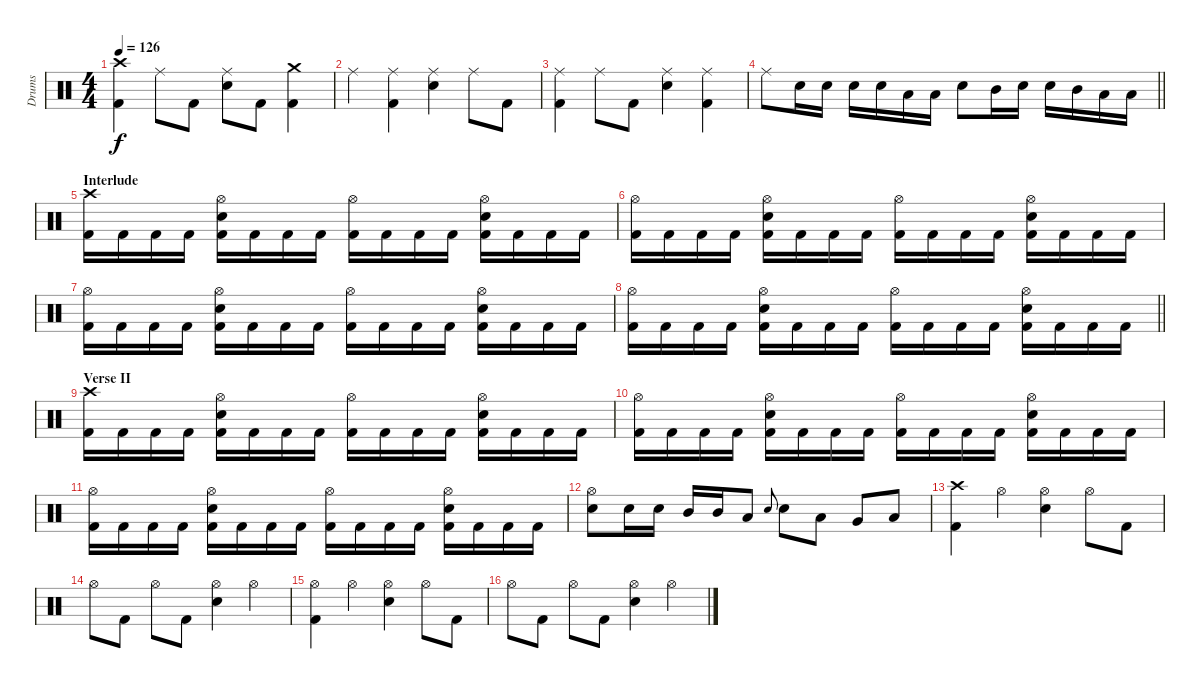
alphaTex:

\track ("Drums" "Drums") {instrument percussion}
\staff {score}
\articulation defaults
\ts (4 4)
\tempo 126
\clef neutral
\ks c
("Crash high (hit)" "Kick (hit) 2").4{dy f} "Ride (middle)".8 "Kick (hit) 2".8 ("Ride (middle)" "Snare (hit) 2").8 "Kick (hit) 2".8 ("Crash medium (hit)" "Kick (hit) 2").4 |
"Ride (middle)".4 ("Ride (middle)" "Kick (hit) 2").4 ("Ride (middle)" "Snare (hit) 2").4 "Ride (middle)".8 "Kick (hit) 2".8 |
("Ride (middle)" "Kick (hit) 2").4 "Ride (middle)".8 "Kick (hit) 2".8 ("Ride (middle)" "Snare (hit) 2").4 ("Ride (middle)" "Kick (hit) 2").4 |
\barLineRight lightlight "Ride (middle)".8 "Snare (hit) 2".16 "Snare (hit) 2".16 "Snare (hit) 2".16 "Snare (hit) 2".16 "Low Tom (hit)".16 "Low Tom (hit)".16 "Snare (hit) 2".8 "Mid Tom (hit)".16 "Snare (hit) 2".16 "Snare (hit) 2".16 "Mid Tom (hit)".16 "Low Tom (hit)".16 "Low Tom (hit)".16
|
\section ("" "Interlude")
("Crash high (hit)" "Kick (hit) 2").16 "Kick (hit) 2".16 "Kick (hit) 2".16 "Kick (hit) 2".16 ("Hi-Hat (open)" "Snare (hit) 2" "Kick (hit) 2").16 "Kick (hit) 2".16 "Kick (hit) 2".16 "Kick (hit) 2".16 ("Hi-Hat (open)" "Kick (hit) 2").16 "Kick (hit) 2".16 "Kick (hit) 2".16 "Kick (hit) 2".16 ("Hi-Hat (open)" "Snare (hit) 2" "Kick (hit) 2").16 "Kick (hit) 2".16 "Kick (hit) 2".16 "Kick (hit) 2".16 |
("Hi-Hat (open)" "Kick (hit) 2").16 "Kick (hit) 2".16 "Kick (hit) 2".16 "Kick (hit) 2".16 ("Hi-Hat (open)" "Snare (hit) 2" "Kick (hit) 2").16 "Kick (hit) 2".16 "Kick (hit) 2".16 "Kick (hit) 2".16 ("Hi-Hat (open)" "Kick (hit) 2").16 "Kick (hit) 2".16 "Kick (hit) 2".16 "Kick (hit) 2".16 ("Hi-Hat (open)" "Snare (hit) 2" "Kick (hit) 2").16 "Kick (hit) 2".16 "Kick (hit) 2".16 "Kick (hit) 2".16 |
("Hi-Hat (open)" "Kick (hit) 2").16 "Kick (hit) 2".16 "Kick (hit) 2".16 "Kick (hit) 2".16 ("Hi-Hat (open)" "Snare (hit) 2" "Kick (hit) 2").16 "Kick (hit) 2".16 "Kick (hit) 2".16 "Kick (hit) 2".16 ("Hi-Hat (open)" "Kick (hit) 2").16 "Kick (hit) 2".16 "Kick (hit) 2".16 "Kick (hit) 2".16 ("Hi-Hat (open)" "Snare (hit) 2" "Kick (hit) 2").16 "Kick (hit) 2".16 "Kick (hit) 2".16 "Kick (hit) 2".16 |
\barLineRight lightlight
("Hi-Hat (open)" "Kick (hit) 2").16 "Kick (hit) 2".16 "Kick (hit) 2".16 "Kick (hit) 2".16 ("Hi-Hat (open)" "Snare (hit) 2" "Kick (hit) 2").16 "Kick (hit) 2".16 "Kick (hit) 2".16 "Kick (hit) 2".16 ("Hi-Hat (open)" "Kick (hit) 2").16 "Kick (hit) 2".16 "Kick (hit) 2".16 "Kick (hit) 2".16 ("Hi-Hat (open)" "Snare (hit) 2" "Kick (hit) 2").16 "Kick (hit) 2".16 "Kick (hit) 2".16 "Kick (hit) 2".16 |
\section ("" "Verse II")
("Crash high (hit)" "Kick (hit) 2").16 "Kick (hit) 2".16 "Kick (hit) 2".16 "Kick (hit) 2".16 ("Hi-Hat (open)" "Snare (hit) 2" "Kick (hit) 2").16 "Kick (hit) 2".16 "Kick (hit) 2".16 "Kick (hit) 2".16 ("Hi-Hat (open)" "Kick (hit) 2").16 "Kick (hit) 2".16 "Kick (hit) 2".16 "Kick (hit) 2".16 ("Hi-Hat (open)" "Snare (hit) 2" "Kick (hit) 2").16 "Kick (hit) 2".16 "Kick (hit) 2".16 "Kick (hit) 2".16 |
("Hi-Hat (open)" "Kick (hit) 2").16 "Kick (hit) 2".16 "Kick (hit) 2".16 "Kick (hit) 2".16 ("Hi-Hat (open)" "Snare (hit) 2" "Kick (hit) 2").16 "Kick (hit) 2".16 "Kick (hit) 2".16 "Kick (hit) 2".16 ("Hi-Hat (open)" "Kick (hit) 2").16 "Kick (hit) 2".16 "Kick (hit) 2".16 "Kick (hit) 2".16 ("Hi-Hat (open)" "Snare (hit) 2" "Kick (hit) 2").16 "Kick (hit) 2".16 "Kick (hit) 2".16 "Kick (hit) 2".16 |
("Hi-Hat (open)" "Kick (hit) 2").16 "Kick (hit) 2".16 "Kick (hit) 2".16 "Kick (hit) 2".16 ("Hi-Hat (open)" "Snare (hit) 2" "Kick (hit) 2").16 "Kick (hit) 2".16 "Kick (hit) 2".16 "Kick (hit) 2".16 ("Hi-Hat (open)" "Kick (hit) 2").16 "Kick (hit) 2".16 "Kick (hit) 2".16 "Kick (hit) 2".16 ("Hi-Hat (open)" "Snare (hit) 2" "Kick (hit) 2").16 "Kick (hit) 2".16 "Kick (hit) 2".16 "Kick (hit) 2".16 |
("Hi-Hat (open)" "Snare (hit) 2").8 "Snare (hit) 2".16 "Snare (hit) 2".16 "Mid Tom (hit)".16 "Mid Tom (hit)".16 "Low Tom (hit)".8 "Snare (hit) 2".8{gr onbeat} "Snare (hit) 2".8 "Low Tom (hit)".8 "Very Low Tom (hit)".8 "Low Floor Tom (hit)".8 |
("Crash high (hit)" "Kick (hit) 2").4 "Hi-Hat (open)".4 ("Hi-Hat (open)" "Snare (hit) 2").4 "Hi-Hat (open)".8 "Kick (hit) 2".8 |
"Hi-Hat (open)".8 "Kick (hit) 2".8 "Hi-Hat (open)".8 "Kick (hit) 2".8 ("Hi-Hat (open)" "Snare (hit) 2").4 "Hi-Hat (open)".4 |
("Hi-Hat (open)" "Kick (hit) 2").4 "Hi-Hat (open)".4 ("Hi-Hat (open)" "Snare (hit) 2").4 "Hi-Hat (open)".8 "Kick (hit) 2".8 |
"Hi-Hat (open)".8 "Kick (hit) 2".8 "Hi-Hat (open)".8 "Kick (hit) 2".8 ("Hi-Hat (open)" "Snare (hit) 2").4 "Hi-Hat (open)".4
